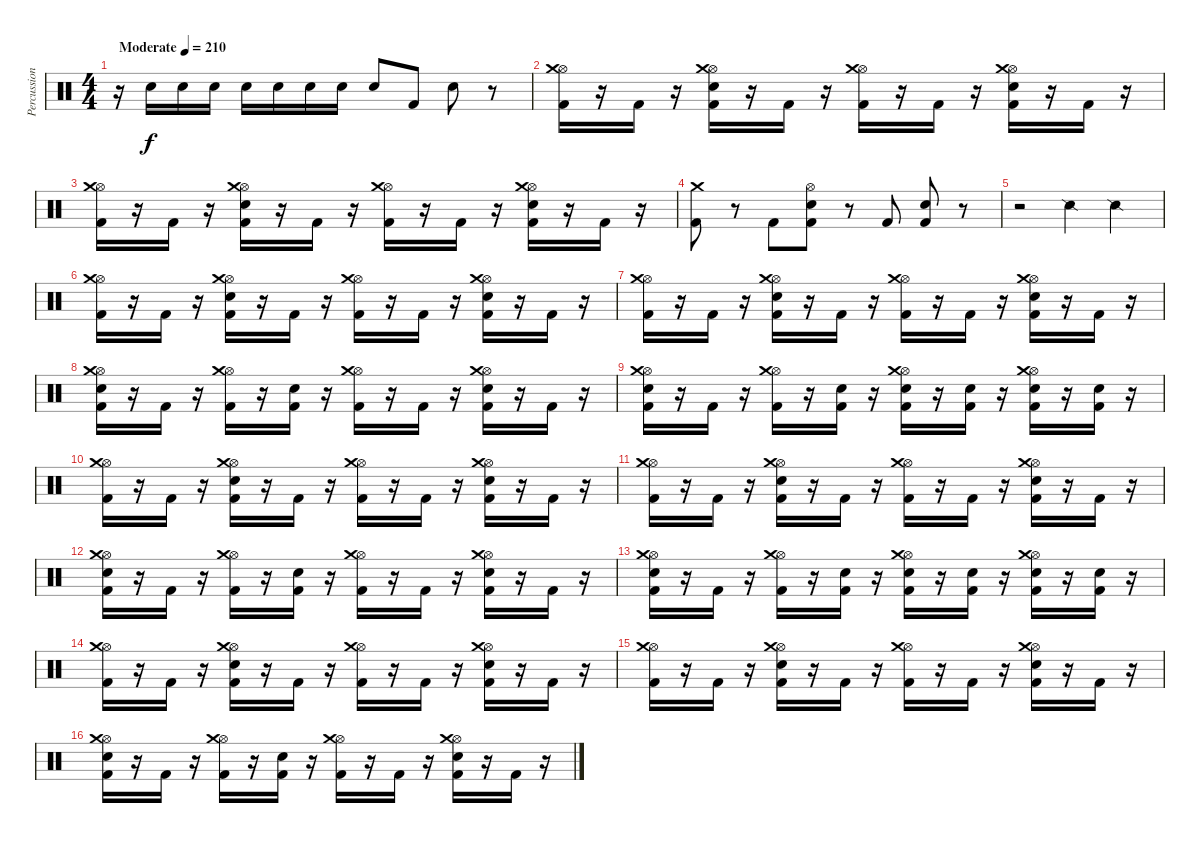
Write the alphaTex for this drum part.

\track ("Percussion" "Percussion") {instrument percussion}
\staff {score}
\articulation defaults
\ts (4 4)
\tempo (210 "Moderate")
\clef neutral
\ks c
r.16{dy f} "Electric Snare (hit)".16 "Electric Snare (hit)".16 "Electric Snare (hit)".16 "Electric Snare (hit)".16 "Electric Snare (hit)".16 "Electric Snare (hit)".16 "Electric Snare (hit)".16 "Electric Snare (hit)".8 "Kick (hit) 2".8 "Electric Snare (hit)".8 r.8 |
("Kick (hit) 2" "Hi-Hat (open)" "Crash medium (hit)").16 r.16 "Kick (hit) 2".16 r.16 ("Kick (hit) 2" "Electric Snare (hit)" "Hi-Hat (open)" "Crash medium (hit)").16 r.16 "Kick (hit) 2".16 r.16 ("Kick (hit) 2" "Hi-Hat (open)" "Crash medium (hit)").16 r.16 "Kick (hit) 2".16 r.16 ("Kick (hit) 2" "Electric Snare (hit)" "Hi-Hat (open)" "Crash medium (hit)").16 r.16 "Kick (hit) 2".16 r.16 |
("Kick (hit) 2" "Hi-Hat (open)" "Crash medium (hit)").16 r.16 "Kick (hit) 2".16 r.16 ("Kick (hit) 2" "Electric Snare (hit)" "Hi-Hat (open)" "Crash medium (hit)").16 r.16 "Kick (hit) 2".16 r.16 ("Kick (hit) 2" "Hi-Hat (open)" "Crash medium (hit)").16 r.16 "Kick (hit) 2".16 r.16 ("Kick (hit) 2" "Electric Snare (hit)" "Hi-Hat (open)" "Crash medium (hit)").16 r.16 "Kick (hit) 2".16 r.16 |
("Kick (hit) 2" "Crash medium (hit)").8 r.8 "Kick (hit) 2".8 ("Kick (hit) 2" "Electric Snare (hit)" "Hi-Hat (open)").8 r.8 "Kick (hit) 2".8 ("Kick (hit) 2" "Electric Snare (hit)").8 r.8 |
r.2 "Snare (side stick) 2".4 "Snare (side stick) 2".4 |
("Kick (hit) 2" "Hi-Hat (open)" "Crash medium (hit)").16 r.16 "Kick (hit) 2".16 r.16 ("Kick (hit) 2" "Electric Snare (hit)" "Hi-Hat (open)" "Crash medium (hit)").16 r.16 "Kick (hit) 2".16 r.16 ("Kick (hit) 2" "Hi-Hat (open)" "Crash medium (hit)").16 r.16 "Kick (hit) 2".16 r.16 ("Kick (hit) 2" "Electric Snare (hit)" "Hi-Hat (open)" "Crash medium (hit)").16 r.16 "Kick (hit) 2".16 r.16 |
("Kick (hit) 2" "Hi-Hat (open)" "Crash medium (hit)").16 r.16 "Kick (hit) 2".16 r.16 ("Kick (hit) 2" "Electric Snare (hit)" "Hi-Hat (open)" "Crash medium (hit)").16 r.16 "Kick (hit) 2".16 r.16 ("Kick (hit) 2" "Hi-Hat (open)" "Crash medium (hit)").16 r.16 "Kick (hit) 2".16 r.16 ("Kick (hit) 2" "Electric Snare (hit)" "Hi-Hat (open)" "Crash medium (hit)").16 r.16 "Kick (hit) 2".16 r.16 |
("Kick (hit) 2" "Electric Snare (hit)" "Hi-Hat (open)" "Crash medium (hit)").16 r.16 "Kick (hit) 2".16 r.16 ("Kick (hit) 2" "Hi-Hat (open)" "Crash medium (hit)").16 r.16 ("Kick (hit) 2" "Electric Snare (hit)").16 r.16 ("Kick (hit) 2" "Hi-Hat (open)" "Crash medium (hit)").16 r.16 "Kick (hit) 2".16 r.16 ("Kick (hit) 2" "Electric Snare (hit)" "Hi-Hat (open)" "Crash medium (hit)").16 r.16 "Kick (hit) 2".16 r.16 |
("Kick (hit) 2" "Electric Snare (hit)" "Hi-Hat (open)" "Crash medium (hit)").16 r.16 "Kick (hit) 2".16 r.16 ("Kick (hit) 2" "Hi-Hat (open)" "Crash medium (hit)").16 r.16 ("Kick (hit) 2" "Electric Snare (hit)").16 r.16 ("Kick (hit) 2" "Electric Snare (hit)" "Hi-Hat (open)" "Crash medium (hit)").16 r.16 ("Kick (hit) 2" "Electric Snare (hit)").16 r.16 ("Kick (hit) 2" "Electric Snare (hit)" "Hi-Hat (open)" "Crash medium (hit)").16 r.16 ("Kick (hit) 2" "Electric Snare (hit)").16 r.16 |
("Kick (hit) 2" "Hi-Hat (open)" "Crash medium (hit)").16 r.16 "Kick (hit) 2".16 r.16 ("Kick (hit) 2" "Electric Snare (hit)" "Hi-Hat (open)" "Crash medium (hit)").16 r.16 "Kick (hit) 2".16 r.16 ("Kick (hit) 2" "Hi-Hat (open)" "Crash medium (hit)").16 r.16 "Kick (hit) 2".16 r.16 ("Kick (hit) 2" "Electric Snare (hit)" "Hi-Hat (open)" "Crash medium (hit)").16 r.16 "Kick (hit) 2".16 r.16 |
("Kick (hit) 2" "Hi-Hat (open)" "Crash medium (hit)").16 r.16 "Kick (hit) 2".16 r.16 ("Kick (hit) 2" "Electric Snare (hit)" "Hi-Hat (open)" "Crash medium (hit)").16 r.16 "Kick (hit) 2".16 r.16 ("Kick (hit) 2" "Hi-Hat (open)" "Crash medium (hit)").16 r.16 "Kick (hit) 2".16 r.16 ("Kick (hit) 2" "Electric Snare (hit)" "Hi-Hat (open)" "Crash medium (hit)").16 r.16 "Kick (hit) 2".16 r.16 |
("Kick (hit) 2" "Electric Snare (hit)" "Hi-Hat (open)" "Crash medium (hit)").16 r.16 "Kick (hit) 2".16 r.16 ("Kick (hit) 2" "Hi-Hat (open)" "Crash medium (hit)").16 r.16 ("Kick (hit) 2" "Electric Snare (hit)").16 r.16 ("Kick (hit) 2" "Hi-Hat (open)" "Crash medium (hit)").16 r.16 "Kick (hit) 2".16 r.16 ("Kick (hit) 2" "Electric Snare (hit)" "Hi-Hat (open)" "Crash medium (hit)").16 r.16 "Kick (hit) 2".16 r.16 |
("Kick (hit) 2" "Electric Snare (hit)" "Hi-Hat (open)" "Crash medium (hit)").16 r.16 "Kick (hit) 2".16 r.16 ("Kick (hit) 2" "Hi-Hat (open)" "Crash medium (hit)").16 r.16 ("Kick (hit) 2" "Electric Snare (hit)").16 r.16 ("Kick (hit) 2" "Electric Snare (hit)" "Hi-Hat (open)" "Crash medium (hit)").16 r.16 ("Kick (hit) 2" "Electric Snare (hit)").16 r.16 ("Kick (hit) 2" "Electric Snare (hit)" "Hi-Hat (open)" "Crash medium (hit)").16 r.16 ("Kick (hit) 2" "Electric Snare (hit)").16 r.16 |
("Kick (hit) 2" "Hi-Hat (open)" "Crash medium (hit)").16 r.16 "Kick (hit) 2".16 r.16 ("Kick (hit) 2" "Electric Snare (hit)" "Hi-Hat (open)" "Crash medium (hit)").16 r.16 "Kick (hit) 2".16 r.16 ("Kick (hit) 2" "Hi-Hat (open)" "Crash medium (hit)").16 r.16 "Kick (hit) 2".16 r.16 ("Kick (hit) 2" "Electric Snare (hit)" "Hi-Hat (open)" "Crash medium (hit)").16 r.16 "Kick (hit) 2".16 r.16 |
("Kick (hit) 2" "Hi-Hat (open)" "Crash medium (hit)").16 r.16 "Kick (hit) 2".16 r.16 ("Kick (hit) 2" "Electric Snare (hit)" "Hi-Hat (open)" "Crash medium (hit)").16 r.16 "Kick (hit) 2".16 r.16 ("Kick (hit) 2" "Hi-Hat (open)" "Crash medium (hit)").16 r.16 "Kick (hit) 2".16 r.16 ("Kick (hit) 2" "Electric Snare (hit)" "Hi-Hat (open)" "Crash medium (hit)").16 r.16 "Kick (hit) 2".16 r.16 |
("Kick (hit) 2" "Electric Snare (hit)" "Hi-Hat (open)" "Crash medium (hit)").16 r.16 "Kick (hit) 2".16 r.16 ("Kick (hit) 2" "Hi-Hat (open)" "Crash medium (hit)").16 r.16 ("Kick (hit) 2" "Electric Snare (hit)").16 r.16 ("Kick (hit) 2" "Hi-Hat (open)" "Crash medium (hit)").16 r.16 "Kick (hit) 2".16 r.16 ("Kick (hit) 2" "Electric Snare (hit)" "Hi-Hat (open)" "Crash medium (hit)").16 r.16 "Kick (hit) 2".16 r.16
